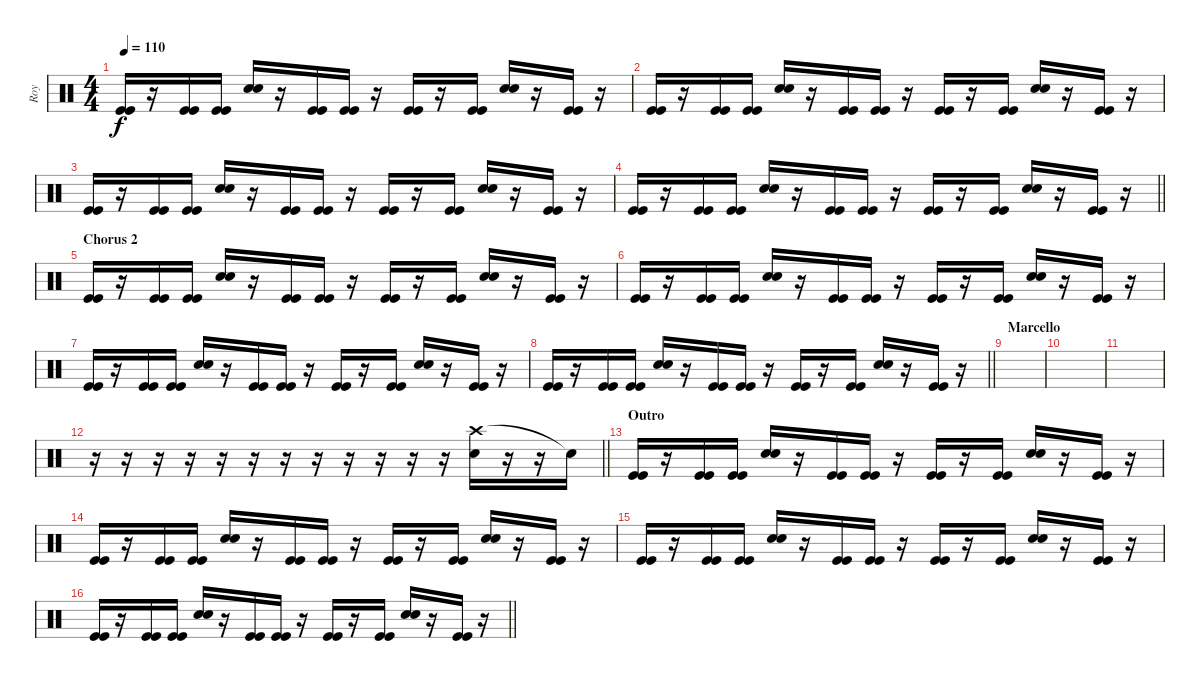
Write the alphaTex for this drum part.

\track ("Roy" "Roy") {instrument percussion}
\staff {score}
\articulation defaults
\ts (4 4)
\section ("" "")
\tempo 110
\clef neutral
\ks c
("Kick (hit)" "Kick (hit)").16{dy f} r.16 ("Kick (hit)" "Kick (hit)").16 ("Kick (hit)" "Kick (hit)").16 ("Electric Snare (hit)" "Electric Snare (hit)").16 r.16 ("Kick (hit)" "Kick (hit)").16 ("Kick (hit)" "Kick (hit)").16 r.16 ("Kick (hit)" "Kick (hit)").16 r.16 ("Kick (hit)" "Kick (hit)").16 ("Electric Snare (hit)" "Electric Snare (hit)").16 r.16 ("Kick (hit)" "Kick (hit)").16 r.16 |
("Kick (hit)" "Kick (hit)").16 r.16 ("Kick (hit)" "Kick (hit)").16 ("Kick (hit)" "Kick (hit)").16 ("Electric Snare (hit)" "Electric Snare (hit)").16 r.16 ("Kick (hit)" "Kick (hit)").16 ("Kick (hit)" "Kick (hit)").16 r.16 ("Kick (hit)" "Kick (hit)").16 r.16 ("Kick (hit)" "Kick (hit)").16 ("Electric Snare (hit)" "Electric Snare (hit)").16 r.16 ("Kick (hit)" "Kick (hit)").16 r.16 |
("Kick (hit)" "Kick (hit)").16 r.16 ("Kick (hit)" "Kick (hit)").16 ("Kick (hit)" "Kick (hit)").16 ("Electric Snare (hit)" "Electric Snare (hit)").16 r.16 ("Kick (hit)" "Kick (hit)").16 ("Kick (hit)" "Kick (hit)").16 r.16 ("Kick (hit)" "Kick (hit)").16 r.16 ("Kick (hit)" "Kick (hit)").16 ("Electric Snare (hit)" "Electric Snare (hit)").16 r.16 ("Kick (hit)" "Kick (hit)").16 r.16 |
\barLineRight lightlight
("Kick (hit)" "Kick (hit)").16 r.16 ("Kick (hit)" "Kick (hit)").16 ("Kick (hit)" "Kick (hit)").16 ("Electric Snare (hit)" "Electric Snare (hit)").16 r.16 ("Kick (hit)" "Kick (hit)").16 ("Kick (hit)" "Kick (hit)").16 r.16 ("Kick (hit)" "Kick (hit)").16 r.16 ("Kick (hit)" "Kick (hit)").16 ("Electric Snare (hit)" "Electric Snare (hit)").16 r.16 ("Kick (hit)" "Kick (hit)").16 r.16 |
\section ("" "Chorus 2")
("Kick (hit)" "Kick (hit)").16 r.16 ("Kick (hit)" "Kick (hit)").16 ("Kick (hit)" "Kick (hit)").16 ("Electric Snare (hit)" "Electric Snare (hit)").16 r.16 ("Kick (hit)" "Kick (hit)").16 ("Kick (hit)" "Kick (hit)").16 r.16 ("Kick (hit)" "Kick (hit)").16 r.16 ("Kick (hit)" "Kick (hit)").16 ("Electric Snare (hit)" "Electric Snare (hit)").16 r.16 ("Kick (hit)" "Kick (hit)").16 r.16 |
("Kick (hit)" "Kick (hit)").16 r.16 ("Kick (hit)" "Kick (hit)").16 ("Kick (hit)" "Kick (hit)").16 ("Electric Snare (hit)" "Electric Snare (hit)").16 r.16 ("Kick (hit)" "Kick (hit)").16 ("Kick (hit)" "Kick (hit)").16 r.16 ("Kick (hit)" "Kick (hit)").16 r.16 ("Kick (hit)" "Kick (hit)").16 ("Electric Snare (hit)" "Electric Snare (hit)").16 r.16 ("Kick (hit)" "Kick (hit)").16 r.16 |
("Kick (hit)" "Kick (hit)").16 r.16 ("Kick (hit)" "Kick (hit)").16 ("Kick (hit)" "Kick (hit)").16 ("Electric Snare (hit)" "Electric Snare (hit)").16 r.16 ("Kick (hit)" "Kick (hit)").16 ("Kick (hit)" "Kick (hit)").16 r.16 ("Kick (hit)" "Kick (hit)").16 r.16 ("Kick (hit)" "Kick (hit)").16 ("Electric Snare (hit)" "Electric Snare (hit)").16 r.16 ("Kick (hit)" "Kick (hit)").16 r.16 |
\barLineRight lightlight
("Kick (hit)" "Kick (hit)").16 r.16 ("Kick (hit)" "Kick (hit)").16 ("Kick (hit)" "Kick (hit)").16 ("Electric Snare (hit)" "Electric Snare (hit)").16 r.16 ("Kick (hit)" "Kick (hit)").16 ("Kick (hit)" "Kick (hit)").16 r.16 ("Kick (hit)" "Kick (hit)").16 r.16 ("Kick (hit)" "Kick (hit)").16 ("Electric Snare (hit)" "Electric Snare (hit)").16 r.16 ("Kick (hit)" "Kick (hit)").16 r.16 |
\section ("" "Marcello")
|
|
|
\barLineRight lightlight
r.16 r.16 r.16 r.16 r.16 r.16 r.16 r.16 r.16 r.16 r.16 r.16 ("Crash high (hit)" "Electric Snare (hit)").16 r.16 r.16 "Snare (hit)"{t}.16 |
\section ("" "Outro")
("Kick (hit)" "Kick (hit)").16 r.16 ("Kick (hit)" "Kick (hit)").16 ("Kick (hit)" "Kick (hit)").16 ("Electric Snare (hit)" "Electric Snare (hit)").16 r.16 ("Kick (hit)" "Kick (hit)").16 ("Kick (hit)" "Kick (hit)").16 r.16 ("Kick (hit)" "Kick (hit)").16 r.16 ("Kick (hit)" "Kick (hit)").16 ("Electric Snare (hit)" "Electric Snare (hit)").16 r.16 ("Kick (hit)" "Kick (hit)").16 r.16 |
("Kick (hit)" "Kick (hit)").16 r.16 ("Kick (hit)" "Kick (hit)").16 ("Kick (hit)" "Kick (hit)").16 ("Electric Snare (hit)" "Electric Snare (hit)").16 r.16 ("Kick (hit)" "Kick (hit)").16 ("Kick (hit)" "Kick (hit)").16 r.16 ("Kick (hit)" "Kick (hit)").16 r.16 ("Kick (hit)" "Kick (hit)").16 ("Electric Snare (hit)" "Electric Snare (hit)").16 r.16 ("Kick (hit)" "Kick (hit)").16 r.16 |
("Kick (hit)" "Kick (hit)").16 r.16 ("Kick (hit)" "Kick (hit)").16 ("Kick (hit)" "Kick (hit)").16 ("Electric Snare (hit)" "Electric Snare (hit)").16 r.16 ("Kick (hit)" "Kick (hit)").16 ("Kick (hit)" "Kick (hit)").16 r.16 ("Kick (hit)" "Kick (hit)").16 r.16 ("Kick (hit)" "Kick (hit)").16 ("Electric Snare (hit)" "Electric Snare (hit)").16 r.16 ("Kick (hit)" "Kick (hit)").16 r.16 |
\barLineRight lightlight
("Kick (hit)" "Kick (hit)").16 r.16 ("Kick (hit)" "Kick (hit)").16 ("Kick (hit)" "Kick (hit)").16 ("Electric Snare (hit)" "Electric Snare (hit)").16 r.16 ("Kick (hit)" "Kick (hit)").16 ("Kick (hit)" "Kick (hit)").16 r.16 ("Kick (hit)" "Kick (hit)").16 r.16 ("Kick (hit)" "Kick (hit)").16 ("Electric Snare (hit)" "Electric Snare (hit)").16 r.16 ("Kick (hit)" "Kick (hit)").16 r.16
